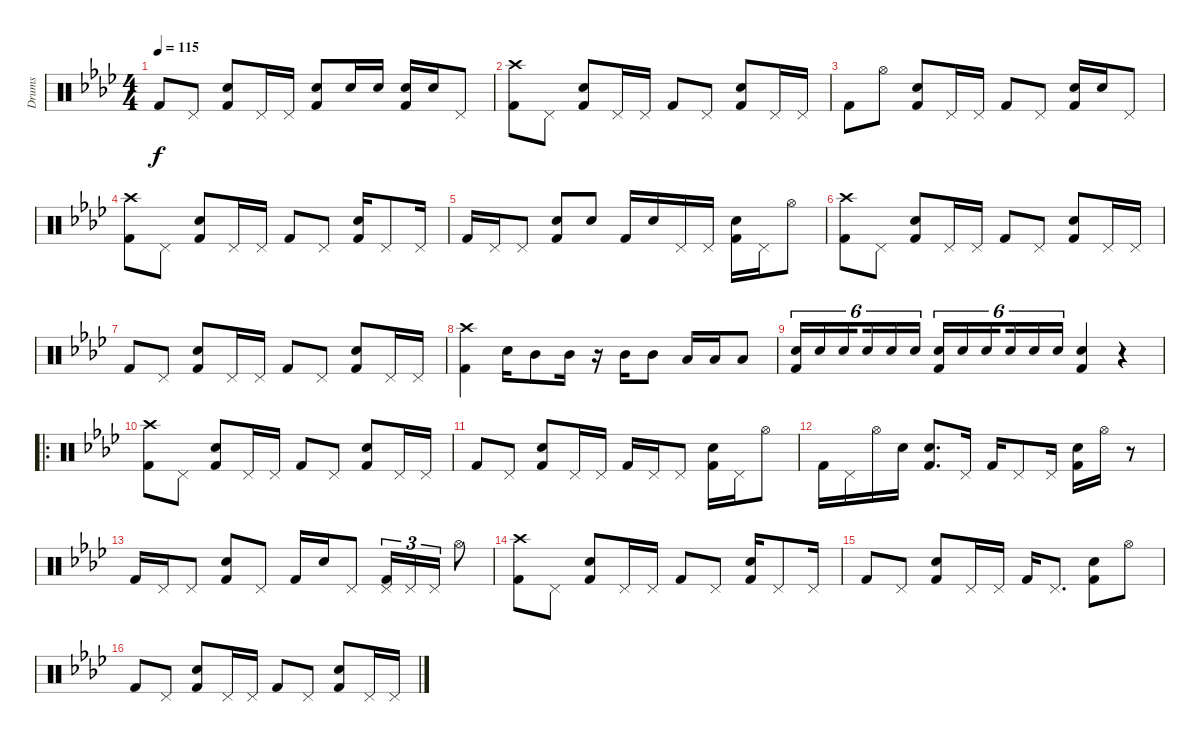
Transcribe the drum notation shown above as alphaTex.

\track ("Drums" "Drums") {instrument percussion}
\staff {score}
\articulation defaults
\ts (4 4)
\tempo 115
\clef neutral
\ks ab "Kick (hit) 2".8{dy f} "Pedal Hi-Hat (hit)".8
("Electric Snare (hit)" "Kick (hit) 2").8 "Pedal Hi-Hat (hit)".16 "Pedal Hi-Hat (hit)".16 ("Electric Snare (hit)" "Kick (hit) 2").8 "Electric Snare (hit)".16 "Electric Snare (hit)".16 ("Electric Snare (hit)" "Kick (hit) 2").16 "Electric Snare (hit)".16 "Pedal Hi-Hat (hit)".8 |
("Crash high (hit)" "Kick (hit) 2").8 "Pedal Hi-Hat (hit)".8 ("Electric Snare (hit)" "Kick (hit) 2").8 "Pedal Hi-Hat (hit)".16 "Pedal Hi-Hat (hit)".16 "Kick (hit) 2".8 "Pedal Hi-Hat (hit)".8 ("Electric Snare (hit)" "Kick (hit) 2").8 "Pedal Hi-Hat (hit)".16 "Pedal Hi-Hat (hit)".16 |
"Kick (hit) 2".8 "Hi-Hat (open)".8 ("Electric Snare (hit)" "Kick (hit) 2").8 "Pedal Hi-Hat (hit)".16 "Pedal Hi-Hat (hit)".16 "Kick (hit) 2".8 "Pedal Hi-Hat (hit)".8 ("Electric Snare (hit)" "Kick (hit) 2").16 "Electric Snare (hit)".16 "Pedal Hi-Hat (hit)".8 |
("Crash high (hit)" "Kick (hit) 2").8 "Pedal Hi-Hat (hit)".8 ("Electric Snare (hit)" "Kick (hit) 2").8 "Pedal Hi-Hat (hit)".16 "Pedal Hi-Hat (hit)".16 "Kick (hit) 2".8 "Pedal Hi-Hat (hit)".8 ("Electric Snare (hit)" "Kick (hit) 2").16 "Pedal Hi-Hat (hit)".8 "Pedal Hi-Hat (hit)".16 |
"Kick (hit) 2".16 "Pedal Hi-Hat (hit)".16 "Pedal Hi-Hat (hit)".8 ("Electric Snare (hit)" "Kick (hit) 2").8 "Electric Snare (hit)".8 "Kick (hit) 2".16 "Electric Snare (hit)".16 "Pedal Hi-Hat (hit)".16 "Pedal Hi-Hat (hit)".16 ("Electric Snare (hit)" "Kick (hit) 2").16 "Pedal Hi-Hat (hit)".16 "Hi-Hat (open)".8 |
("Crash high (hit)" "Kick (hit) 2").8 "Pedal Hi-Hat (hit)".8 ("Electric Snare (hit)" "Kick (hit) 2").8 "Pedal Hi-Hat (hit)".16 "Pedal Hi-Hat (hit)".16 "Kick (hit) 2".8 "Pedal Hi-Hat (hit)".8 ("Electric Snare (hit)" "Kick (hit) 2").8 "Pedal Hi-Hat (hit)".16 "Pedal Hi-Hat (hit)".16 |
"Kick (hit) 2".8 "Pedal Hi-Hat (hit)".8 ("Electric Snare (hit)" "Kick (hit) 2").8 "Pedal Hi-Hat (hit)".16 "Pedal Hi-Hat (hit)".16 "Kick (hit) 2".8 "Pedal Hi-Hat (hit)".8 ("Electric Snare (hit)" "Kick (hit) 2").8 "Pedal Hi-Hat (hit)".16 "Pedal Hi-Hat (hit)".16 |
("Crash high (hit)" "Kick (hit) 2").4 "Electric Snare (hit)".16 "Mid Tom (hit)".8 "Mid Tom (hit)".16 r.16 "Mid Tom (hit)".16 "Mid Tom (hit)".8 "Low Tom (hit)".16 "Low Tom (hit)".16 "Low Tom (hit)".8 |
("Electric Snare (hit)" "Kick (hit) 2").16{tu (6 4)} "Electric Snare (hit)".16{tu (6 4)} "Electric Snare (hit)".16{tu (6 4) beam splitsecondary} "Electric Snare (hit)".16{tu (6 4)} "Electric Snare (hit)".16{tu (6 4)} "Electric Snare (hit)".16{tu (6 4)} ("Electric Snare (hit)" "Kick (hit) 2").16{tu (6 4)} "Electric Snare (hit)".16{tu (6 4)} "Electric Snare (hit)".16{tu (6 4) beam splitsecondary} "Electric Snare (hit)".16{tu (6 4)} "Electric Snare (hit)".16{tu (6 4)} "Electric Snare (hit)".16{tu (6 4)} ("Electric Snare (hit)" "Kick (hit) 2").4 r.4 |
\ro
("Crash high (hit)" "Kick (hit) 2").8 "Pedal Hi-Hat (hit)".8 ("Electric Snare (hit)" "Kick (hit) 2").8 "Pedal Hi-Hat (hit)".16 "Pedal Hi-Hat (hit)".16 "Kick (hit) 2".8 "Pedal Hi-Hat (hit)".8 ("Electric Snare (hit)" "Kick (hit) 2").8 "Pedal Hi-Hat (hit)".16 "Pedal Hi-Hat (hit)".16 |
"Kick (hit) 2".8 "Pedal Hi-Hat (hit)".8 ("Electric Snare (hit)" "Kick (hit) 2").8 "Pedal Hi-Hat (hit)".16 "Pedal Hi-Hat (hit)".16 "Kick (hit) 2".16 "Pedal Hi-Hat (hit)".16 "Pedal Hi-Hat (hit)".8 ("Electric Snare (hit)" "Kick (hit) 2").16 "Pedal Hi-Hat (hit)".16 "Hi-Hat (open)".8 |
"Kick (hit) 2".16 "Pedal Hi-Hat (hit)".16 "Hi-Hat (open)".16 "Electric Snare (hit)".16 ("Electric Snare (hit)" "Kick (hit) 2").8{d} "Pedal Hi-Hat (hit)".16 "Kick (hit) 2".16 "Pedal Hi-Hat (hit)".8 "Pedal Hi-Hat (hit)".16 ("Electric Snare (hit)" "Kick (hit) 2").16 "Hi-Hat (open)".16 r.8 |
"Kick (hit) 2".16 "Pedal Hi-Hat (hit)".16 "Pedal Hi-Hat (hit)".8 ("Electric Snare (hit)" "Kick (hit) 2").8 "Pedal Hi-Hat (hit)".8 "Kick (hit) 2".16 "Electric Snare (hit)".16 "Pedal Hi-Hat (hit)".8 ("Pedal Hi-Hat (hit)" "Kick (hit) 2").16{tu (3 2)} "Pedal Hi-Hat (hit)".16{tu (3 2)} "Pedal Hi-Hat (hit)".16{tu (3 2)} "Hi-Hat (open)".8 |
("Crash high (hit)" "Kick (hit) 2").8 "Pedal Hi-Hat (hit)".8 ("Electric Snare (hit)" "Kick (hit) 2").8 "Pedal Hi-Hat (hit)".16 "Pedal Hi-Hat (hit)".16 "Kick (hit) 2".8 "Pedal Hi-Hat (hit)".8 ("Electric Snare (hit)" "Kick (hit) 2").16 "Pedal Hi-Hat (hit)".8 "Pedal Hi-Hat (hit)".16 |
"Kick (hit) 2".8 "Pedal Hi-Hat (hit)".8 ("Electric Snare (hit)" "Kick (hit) 2").8 "Pedal Hi-Hat (hit)".16 "Pedal Hi-Hat (hit)".16 "Kick (hit) 2".16 "Pedal Hi-Hat (hit)".8{d} ("Electric Snare (hit)" "Kick (hit) 2").8 "Hi-Hat (open)".8 |
"Kick (hit) 2".8 "Pedal Hi-Hat (hit)".8 ("Electric Snare (hit)" "Kick (hit) 2").8 "Pedal Hi-Hat (hit)".16 "Pedal Hi-Hat (hit)".16 "Kick (hit) 2".8 "Pedal Hi-Hat (hit)".8 ("Electric Snare (hit)" "Kick (hit) 2").8 "Pedal Hi-Hat (hit)".16 "Pedal Hi-Hat (hit)".16
